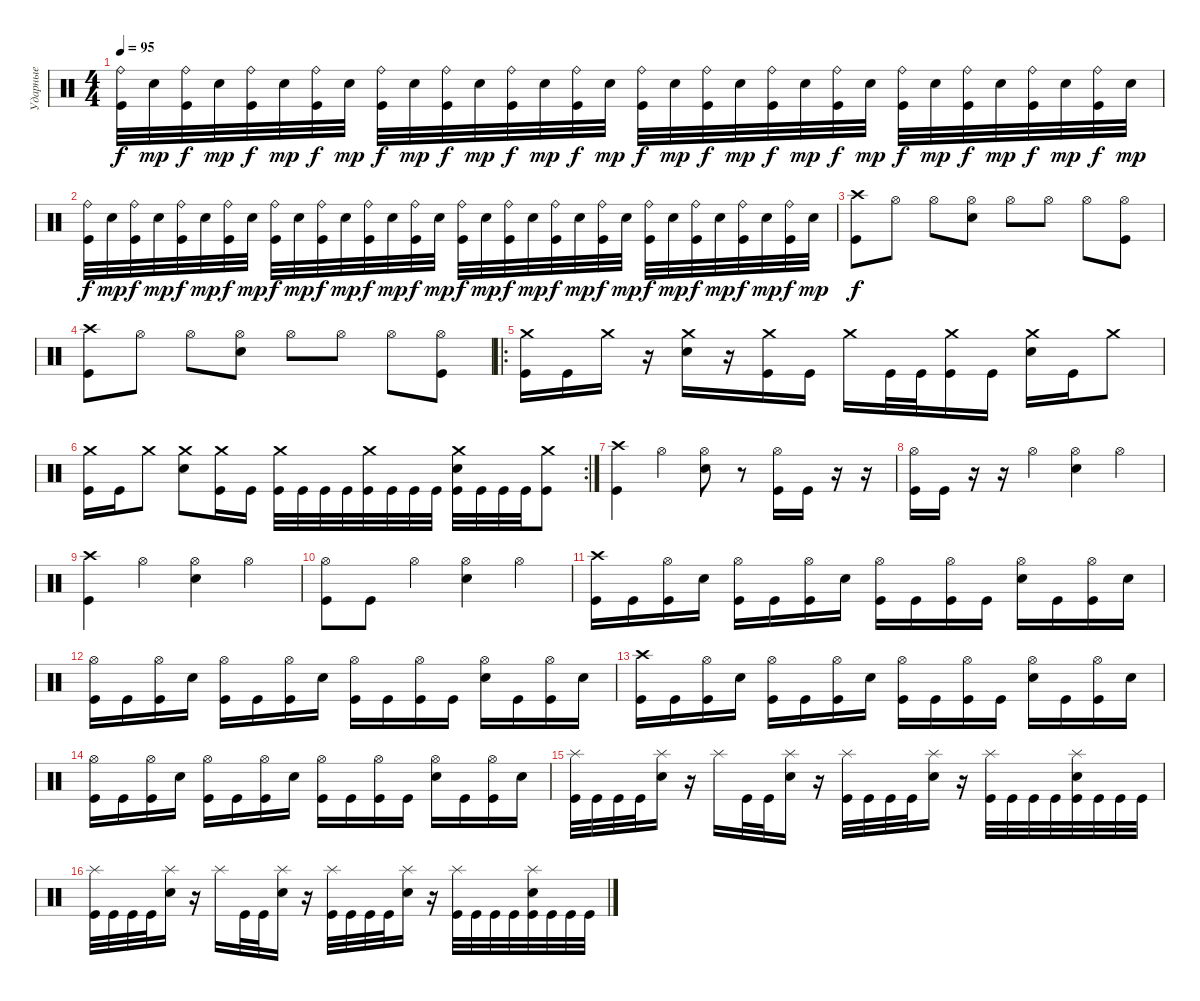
\track ("Ударные" "Ударные") {instrument percussion}
\staff {score}
\articulation defaults
\ts (4 4)
\tempo 95
\clef neutral
\ks c
("Ride (bell)" "Kick (hit)").32{dy f} "Electric Snare (hit)".32{dy mp} ("Ride (bell)" "Kick (hit)").32{dy f} "Electric Snare (hit)".32{dy mp} ("Ride (bell)" "Kick (hit)").32{dy f} "Electric Snare (hit)".32{dy mp} ("Ride (bell)" "Kick (hit)").32{dy f} "Electric Snare (hit)".32{dy mp} ("Ride (bell)" "Kick (hit)").32{dy f} "Electric Snare (hit)".32{dy mp} ("Ride (bell)" "Kick (hit)").32{dy f} "Electric Snare (hit)".32{dy mp} ("Ride (bell)" "Kick (hit)").32{dy f} "Electric Snare (hit)".32{dy mp} ("Ride (bell)" "Kick (hit)").32{dy f} "Electric Snare (hit)".32{dy mp} ("Ride (bell)" "Kick (hit)").32{dy f} "Electric Snare (hit)".32{dy mp} ("Ride (bell)" "Kick (hit)").32{dy f} "Electric Snare (hit)".32{dy mp} ("Ride (bell)" "Kick (hit)").32{dy f} "Electric Snare (hit)".32{dy mp} ("Ride (bell)" "Kick (hit)").32{dy f} "Electric Snare (hit)".32{dy mp} ("Ride (bell)" "Kick (hit)").32{dy f} "Electric Snare (hit)".32{dy mp} ("Ride (bell)" "Kick (hit)").32{dy f} "Electric Snare (hit)".32{dy mp} ("Ride (bell)" "Kick (hit)").32{dy f} "Electric Snare (hit)".32{dy mp} ("Ride (bell)" "Kick (hit)").32{dy f} "Electric Snare (hit)".32{dy mp} |
("Ride (bell)" "Kick (hit)").32{dy f} "Electric Snare (hit)".32{dy mp} ("Ride (bell)" "Kick (hit)").32{dy f} "Electric Snare (hit)".32{dy mp} ("Ride (bell)" "Kick (hit)").32{dy f} "Electric Snare (hit)".32{dy mp} ("Ride (bell)" "Kick (hit)").32{dy f} "Electric Snare (hit)".32{dy mp} ("Ride (bell)" "Kick (hit)").32{dy f} "Electric Snare (hit)".32{dy mp} ("Ride (bell)" "Kick (hit)").32{dy f} "Electric Snare (hit)".32{dy mp} ("Ride (bell)" "Kick (hit)").32{dy f} "Electric Snare (hit)".32{dy mp} ("Ride (bell)" "Kick (hit)").32{dy f} "Electric Snare (hit)".32{dy mp} ("Ride (bell)" "Kick (hit)").32{dy f} "Electric Snare (hit)".32{dy mp} ("Ride (bell)" "Kick (hit)").32{dy f} "Electric Snare (hit)".32{dy mp} ("Ride (bell)" "Kick (hit)").32{dy f} "Electric Snare (hit)".32{dy mp} ("Ride (bell)" "Kick (hit)").32{dy f} "Electric Snare (hit)".32{dy mp} ("Ride (bell)" "Kick (hit)").32{dy f} "Electric Snare (hit)".32{dy mp} ("Ride (bell)" "Kick (hit)").32{dy f} "Electric Snare (hit)".32{dy mp} ("Ride (bell)" "Kick (hit)").32{dy f} "Electric Snare (hit)".32{dy mp} ("Ride (bell)" "Kick (hit)").32{dy f} "Electric Snare (hit)".32{dy mp} |
("Crash high (hit)" "Kick (hit)").8{dy f} "Hi-Hat (open)".8 "Hi-Hat (open)".8 ("Hi-Hat (open)" "Electric Snare (hit)").8 "Hi-Hat (open)".8 "Hi-Hat (open)".8 "Hi-Hat (open)".8 ("Hi-Hat (open)" "Kick (hit)").8 |
("Crash high (hit)" "Kick (hit)").8 "Hi-Hat (open)".8 "Hi-Hat (open)".8 ("Hi-Hat (open)" "Electric Snare (hit)").8 "Hi-Hat (open)".8 "Hi-Hat (open)".8 "Hi-Hat (open)".8 ("Hi-Hat (open)" "Kick (hit)").8 |
\ro
("Crash medium (hit)" "Kick (hit)").16 "Kick (hit)".16 "Crash medium (hit)".16 r.16 ("Crash medium (hit)" "Electric Snare (hit)").16 r.16 ("Crash medium (hit)" "Kick (hit)").16 "Kick (hit)".16 "Crash medium (hit)".16 "Kick (hit)".32 "Kick (hit)".32 ("Crash medium (hit)" "Kick (hit)").16 "Kick (hit)".16 ("Crash medium (hit)" "Electric Snare (hit)").16 "Kick (hit)".16 "Crash medium (hit)".8 |
\rc 2
("Crash medium (hit)" "Kick (hit)").16 "Kick (hit)".16 "Crash medium (hit)".8 ("Crash medium (hit)" "Electric Snare (hit)").8 ("Crash medium (hit)" "Kick (hit)").16 "Kick (hit)".16 ("Crash medium (hit)" "Kick (hit)").32 "Kick (hit)".32 "Kick (hit)".32 "Kick (hit)".32 ("Crash medium (hit)" "Kick (hit)").32 "Kick (hit)".32 "Kick (hit)".32 "Kick (hit)".32 ("Crash medium (hit)" "Electric Snare (hit)" "Kick (hit)").32 "Kick (hit)".32 "Kick (hit)".32 "Kick (hit)".32 ("Crash medium (hit)" "Kick (hit)").8 |
("Crash high (hit)" "Kick (hit)").4 "Hi-Hat (open)".4 ("Hi-Hat (open)" "Electric Snare (hit)").8 r.8 ("Hi-Hat (open)" "Kick (hit)").16 "Kick (hit)".16 r.16 r.16 |
("Hi-Hat (open)" "Kick (hit)").16 "Kick (hit)".16 r.16 r.16 "Hi-Hat (open)".4 ("Hi-Hat (open)" "Electric Snare (hit)").4 "Hi-Hat (open)".4 |
("Kick (hit)" "Crash high (hit)").4 "Hi-Hat (open)".4 ("Hi-Hat (open)" "Electric Snare (hit)").4 "Hi-Hat (open)".4 |
("Hi-Hat (open)" "Kick (hit)").8 "Kick (hit)".8 "Hi-Hat (open)".4 ("Hi-Hat (open)" "Electric Snare (hit)").4 "Hi-Hat (open)".4 |
("Kick (hit)" "Crash high (hit)").16 "Kick (hit)".16 ("Kick (hit)" "Hi-Hat (open)").16 "Electric Snare (hit)".16 ("Kick (hit)" "Hi-Hat (open)").16 "Kick (hit)".16 ("Kick (hit)" "Hi-Hat (open)").16 "Electric Snare (hit)".16 ("Kick (hit)" "Hi-Hat (open)").16 "Kick (hit)".16 ("Kick (hit)" "Hi-Hat (open)").16 "Kick (hit)".16 ("Electric Snare (hit)" "Hi-Hat (open)").16 "Kick (hit)".16 ("Kick (hit)" "Hi-Hat (open)").16 "Electric Snare (hit)".16 |
("Kick (hit)" "Hi-Hat (open)").16 "Kick (hit)".16 ("Kick (hit)" "Hi-Hat (open)").16 "Electric Snare (hit)".16 ("Kick (hit)" "Hi-Hat (open)").16 "Kick (hit)".16 ("Kick (hit)" "Hi-Hat (open)").16 "Electric Snare (hit)".16 ("Kick (hit)" "Hi-Hat (open)").16 "Kick (hit)".16 ("Kick (hit)" "Hi-Hat (open)").16 "Kick (hit)".16 ("Electric Snare (hit)" "Hi-Hat (open)").16 "Kick (hit)".16 ("Kick (hit)" "Hi-Hat (open)").16 "Electric Snare (hit)".16 |
("Kick (hit)" "Crash high (hit)").16 "Kick (hit)".16 ("Kick (hit)" "Hi-Hat (open)").16 "Electric Snare (hit)".16 ("Kick (hit)" "Hi-Hat (open)").16 "Kick (hit)".16 ("Kick (hit)" "Hi-Hat (open)").16 "Electric Snare (hit)".16 ("Kick (hit)" "Hi-Hat (open)").16 "Kick (hit)".16 ("Kick (hit)" "Hi-Hat (open)").16 "Kick (hit)".16 ("Electric Snare (hit)" "Hi-Hat (open)").16 "Kick (hit)".16 ("Kick (hit)" "Hi-Hat (open)").16 "Electric Snare (hit)".16 |
("Kick (hit)" "Hi-Hat (open)").16 "Kick (hit)".16 ("Kick (hit)" "Hi-Hat (open)").16 "Electric Snare (hit)".16 ("Kick (hit)" "Hi-Hat (open)").16 "Kick (hit)".16 ("Kick (hit)" "Hi-Hat (open)").16 "Electric Snare (hit)".16 ("Kick (hit)" "Hi-Hat (open)").16 "Kick (hit)".16 ("Kick (hit)" "Hi-Hat (open)").16 "Kick (hit)".16 ("Electric Snare (hit)" "Hi-Hat (open)").16 "Kick (hit)".16 ("Kick (hit)" "Hi-Hat (open)").16 "Electric Snare (hit)".16 |
("Kick (hit)" "Splash (hit)").32 "Kick (hit)".32 "Kick (hit)".32 "Kick (hit)".32 ("Electric Snare (hit)" "Splash (hit)").16 r.16 "Splash (hit)".16 "Kick (hit)".32 "Kick (hit)".32 ("Electric Snare (hit)" "Splash (hit)").16 r.16 ("Kick (hit)" "Splash (hit)").32 "Kick (hit)".32 "Kick (hit)".32 "Kick (hit)".32 ("Electric Snare (hit)" "Splash (hit)").16 r.16 ("Kick (hit)" "Splash (hit)").32 "Kick (hit)".32 "Kick (hit)".32 "Kick (hit)".32 ("Kick (hit)" "Electric Snare (hit)" "Splash (hit)").32 "Kick (hit)".32 "Kick (hit)".32 "Kick (hit)".32 |
("Kick (hit)" "Splash (hit)").32 "Kick (hit)".32 "Kick (hit)".32 "Kick (hit)".32 ("Electric Snare (hit)" "Splash (hit)").16 r.16 "Splash (hit)".16 "Kick (hit)".32 "Kick (hit)".32 ("Electric Snare (hit)" "Splash (hit)").16 r.16 ("Kick (hit)" "Splash (hit)").32 "Kick (hit)".32 "Kick (hit)".32 "Kick (hit)".32 ("Electric Snare (hit)" "Splash (hit)").16 r.16 ("Kick (hit)" "Splash (hit)").32 "Kick (hit)".32 "Kick (hit)".32 "Kick (hit)".32 ("Kick (hit)" "Electric Snare (hit)" "Splash (hit)").32 "Kick (hit)".32 "Kick (hit)".32 "Kick (hit)".32
